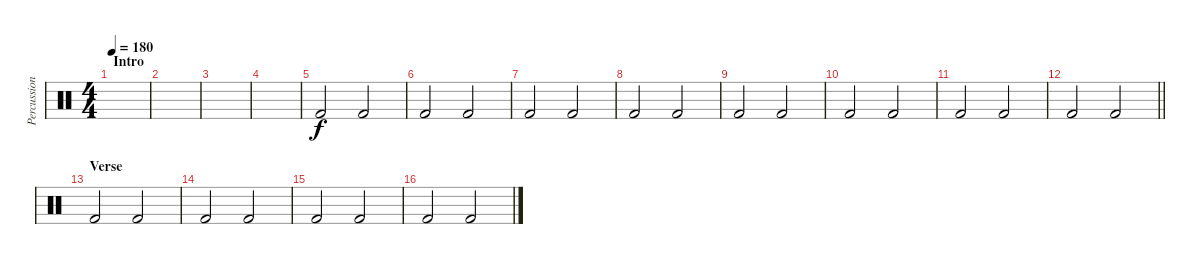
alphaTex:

\track ("Percussion" "Percussion") {instrument percussion}
\staff {score}
\articulation defaults
\ts (4 4)
\section ("" "Intro")
\tempo 180
\clef neutral
\ks c
|
|
|
|
"Kick (hit) 2".2 "Kick (hit) 2".2 |
"Kick (hit) 2".2 "Kick (hit) 2".2 |
"Kick (hit) 2".2 "Kick (hit) 2".2 |
"Kick (hit) 2".2 "Kick (hit) 2".2 |
"Kick (hit) 2".2 "Kick (hit) 2".2 |
"Kick (hit) 2".2 "Kick (hit) 2".2 |
"Kick (hit) 2".2 "Kick (hit) 2".2 |
\barLineRight lightlight "Kick (hit) 2".2 "Kick (hit) 2".2
|
\section ("" "Verse")
"Kick (hit) 2".2 "Kick (hit) 2".2 |
"Kick (hit) 2".2 "Kick (hit) 2".2 |
"Kick (hit) 2".2 "Kick (hit) 2".2 |
"Kick (hit) 2".2 "Kick (hit) 2".2
